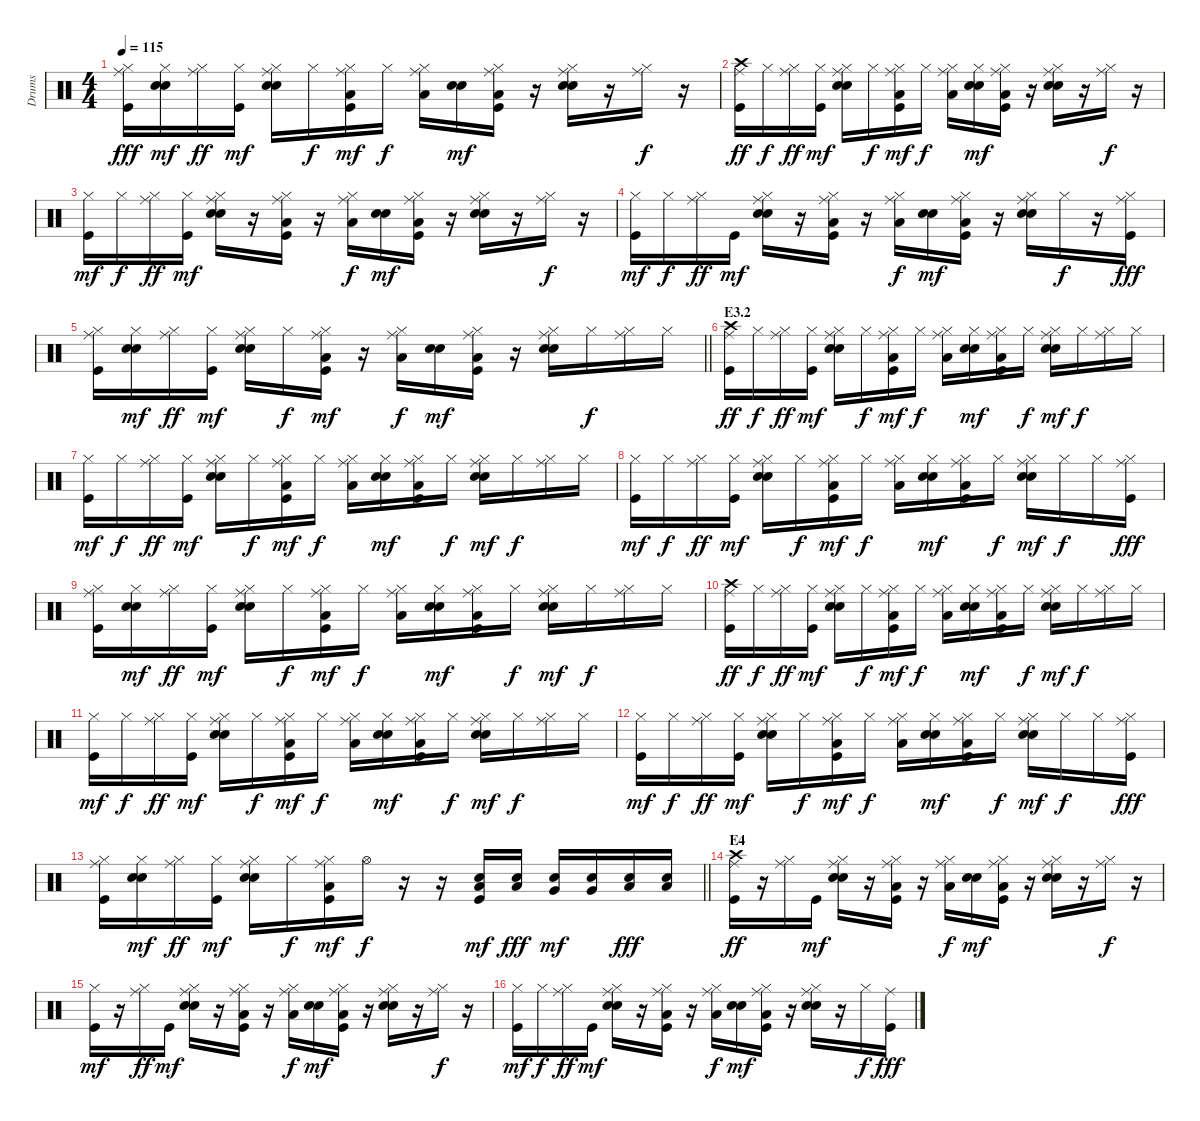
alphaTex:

\track ("Drums" "Drums") {instrument percussion}
\staff {score}
\articulation defaults
\ts (4 4)
\tempo 115
\clef neutral
\ks c
("Hi-Hat (closed)" "Ride (middle)" "Kick (hit)").16{dy fff} ("Hi-Hat (closed)" "Electric Snare (hit)" "Snare (hit) 2").16{dy mf} ("Hi-Hat (closed)" "Ride (middle)").16{dy ff} ("Hi-Hat (closed)" "Kick (hit)").16{dy mf} ("Hi-Hat (closed)" "Ride (middle)" "Electric Snare (hit)" "Snare (hit) 2").16 "Hi-Hat (closed)".16{dy f} ("Hi-Hat (closed)" "Ride (middle)" "Low Tom (hit)" "Kick (hit)").16{dy mf} "Hi-Hat (closed)".16{dy f} ("Hi-Hat (closed)" "Ride (middle)" "Low Tom (hit)").16 ("Electric Snare (hit)" "Snare (hit) 2").16{dy mf} ("Hi-Hat (closed)" "Ride (middle)" "Low Tom (hit)" "Kick (hit)").16 r.16 ("Hi-Hat (closed)" "Ride (middle)" "Electric Snare (hit)" "Snare (hit) 2").16 r.16 ("Hi-Hat (closed)" "Ride (middle)").16{dy f} r.16 |
("Crash high (hit)" "Ride (middle)" "Kick (hit)").16{dy ff} "Hi-Hat (closed)".16{dy f} ("Hi-Hat (closed)" "Ride (middle)").16{dy ff} ("Hi-Hat (closed)" "Kick (hit)").16{dy mf} ("Hi-Hat (closed)" "Ride (middle)" "Electric Snare (hit)" "Snare (hit) 2").16 "Hi-Hat (closed)".16{dy f} ("Hi-Hat (closed)" "Ride (middle)" "Low Tom (hit)" "Kick (hit)").16{dy mf} "Hi-Hat (closed)".16{dy f} ("Hi-Hat (closed)" "Ride (middle)" "Low Tom (hit)").16 ("Hi-Hat (closed)" "Electric Snare (hit)" "Snare (hit) 2").16{dy mf} ("Hi-Hat (closed)" "Ride (middle)" "Low Tom (hit)" "Kick (hit)").16 r.16 ("Hi-Hat (closed)" "Ride (middle)" "Electric Snare (hit)" "Snare (hit) 2").16 r.16 ("Hi-Hat (closed)" "Ride (middle)").16{dy f} r.16 |
("Hi-Hat (closed)" "Kick (hit)").16{dy mf} "Hi-Hat (closed)".16{dy f} ("Hi-Hat (closed)" "Ride (middle)").16{dy ff} ("Hi-Hat (closed)" "Kick (hit)").16{dy mf} ("Hi-Hat (closed)" "Ride (middle)" "Electric Snare (hit)" "Snare (hit) 2").16 r.16 ("Hi-Hat (closed)" "Ride (middle)" "Low Tom (hit)" "Kick (hit)").16 r.16 ("Hi-Hat (closed)" "Ride (middle)" "Low Tom (hit)").16{dy f} ("Electric Snare (hit)" "Snare (hit) 2").16{dy mf} ("Hi-Hat (closed)" "Ride (middle)" "Low Tom (hit)" "Kick (hit)").16 r.16 ("Hi-Hat (closed)" "Ride (middle)" "Electric Snare (hit)" "Snare (hit) 2").16 r.16 ("Hi-Hat (closed)" "Ride (middle)").16{dy f} r.16 |
("Hi-Hat (closed)" "Kick (hit)").16{dy mf} "Hi-Hat (closed)".16{dy f} ("Hi-Hat (closed)" "Ride (middle)").16{dy ff} "Kick (hit)".16{dy mf} ("Hi-Hat (closed)" "Ride (middle)" "Electric Snare (hit)" "Snare (hit) 2").16 r.16 ("Hi-Hat (closed)" "Ride (middle)" "Low Tom (hit)" "Kick (hit)").16 r.16 ("Hi-Hat (closed)" "Ride (middle)" "Low Tom (hit)").16{dy f} ("Electric Snare (hit)" "Snare (hit) 2").16{dy mf} ("Hi-Hat (closed)" "Ride (middle)" "Low Tom (hit)" "Kick (hit)").16 r.16 ("Hi-Hat (closed)" "Ride (middle)" "Electric Snare (hit)" "Snare (hit) 2").16 "Hi-Hat (closed)".16{dy f} r.16 ("Hi-Hat (closed)" "Ride (middle)" "Kick (hit)").16{dy fff} |
\barLineRight lightlight
("Hi-Hat (closed)" "Ride (middle)" "Kick (hit)").16 ("Hi-Hat (closed)" "Electric Snare (hit)" "Snare (hit) 2").16{dy mf} ("Hi-Hat (closed)" "Ride (middle)").16{dy ff} ("Hi-Hat (closed)" "Kick (hit)").16{dy mf} ("Hi-Hat (closed)" "Ride (middle)" "Electric Snare (hit)" "Snare (hit) 2").16 "Hi-Hat (closed)".16{dy f} ("Hi-Hat (closed)" "Ride (middle)" "Low Tom (hit)" "Kick (hit)").16{dy mf} r.16 ("Hi-Hat (closed)" "Ride (middle)" "Low Tom (hit)").16{dy f} ("Electric Snare (hit)" "Snare (hit) 2").16{dy mf} ("Hi-Hat (closed)" "Ride (middle)" "Low Tom (hit)" "Kick (hit)").16 r.16 ("Hi-Hat (closed)" "Ride (middle)" "Electric Snare (hit)" "Snare (hit) 2").16 "Hi-Hat (closed)".16{dy f} ("Hi-Hat (closed)" "Ride (middle)").16 "Hi-Hat (closed)".16 |
\section ("" "E3.2")
("Crash high (hit)" "Ride (middle)" "Kick (hit)").16{dy ff} "Hi-Hat (closed)".16{dy f} ("Hi-Hat (closed)" "Ride (middle)").16{dy ff} ("Hi-Hat (closed)" "Kick (hit)").16{dy mf} ("Hi-Hat (closed)" "Ride (middle)" "Electric Snare (hit)" "Snare (hit) 2").16 "Hi-Hat (closed)".16{dy f} ("Hi-Hat (closed)" "Ride (middle)" "Low Tom (hit)" "Kick (hit)").16{dy mf} "Hi-Hat (closed)".16{dy f} ("Hi-Hat (closed)" "Ride (middle)" "Low Tom (hit)").16 ("Hi-Hat (closed)" "Electric Snare (hit)" "Snare (hit) 2").16{dy mf} ("Hi-Hat (closed)" "Ride (middle)" "Low Tom (hit)" "Kick (hit)").16 "Hi-Hat (closed)".16{dy f} ("Hi-Hat (closed)" "Ride (middle)" "Electric Snare (hit)" "Snare (hit) 2").16{dy mf} "Hi-Hat (closed)".16{dy f} ("Hi-Hat (closed)" "Ride (middle)").16 "Hi-Hat (closed)".16 |
("Hi-Hat (closed)" "Kick (hit)").16{dy mf} "Hi-Hat (closed)".16{dy f} ("Hi-Hat (closed)" "Ride (middle)").16{dy ff} ("Hi-Hat (closed)" "Kick (hit)").16{dy mf} ("Hi-Hat (closed)" "Ride (middle)" "Electric Snare (hit)" "Snare (hit) 2").16 "Hi-Hat (closed)".16{dy f} ("Hi-Hat (closed)" "Ride (middle)" "Low Tom (hit)" "Kick (hit)").16{dy mf} "Hi-Hat (closed)".16{dy f} ("Hi-Hat (closed)" "Ride (middle)" "Low Tom (hit)").16 ("Hi-Hat (closed)" "Electric Snare (hit)" "Snare (hit) 2").16{dy mf} ("Hi-Hat (closed)" "Ride (middle)" "Low Tom (hit)" "Kick (hit)").16 "Hi-Hat (closed)".16{dy f} ("Hi-Hat (closed)" "Ride (middle)" "Electric Snare (hit)" "Snare (hit) 2").16{dy mf} "Hi-Hat (closed)".16{dy f} ("Hi-Hat (closed)" "Ride (middle)").16 "Hi-Hat (closed)".16 |
("Hi-Hat (closed)" "Kick (hit)").16{dy mf} "Hi-Hat (closed)".16{dy f} ("Hi-Hat (closed)" "Ride (middle)").16{dy ff} ("Hi-Hat (closed)" "Kick (hit)").16{dy mf} ("Hi-Hat (closed)" "Ride (middle)" "Electric Snare (hit)" "Snare (hit) 2").16 "Hi-Hat (closed)".16{dy f} ("Hi-Hat (closed)" "Ride (middle)" "Low Tom (hit)" "Kick (hit)").16{dy mf} "Hi-Hat (closed)".16{dy f} ("Hi-Hat (closed)" "Ride (middle)" "Low Tom (hit)").16 ("Hi-Hat (closed)" "Electric Snare (hit)" "Snare (hit) 2").16{dy mf} ("Hi-Hat (closed)" "Ride (middle)" "Low Tom (hit)" "Kick (hit)").16 "Hi-Hat (closed)".16{dy f} ("Hi-Hat (closed)" "Ride (middle)" "Electric Snare (hit)" "Snare (hit) 2").16{dy mf} "Hi-Hat (closed)".16{dy f} "Hi-Hat (closed)".16 ("Hi-Hat (closed)" "Ride (middle)" "Kick (hit)").16{dy fff} |
("Hi-Hat (closed)" "Ride (middle)" "Kick (hit)").16 ("Hi-Hat (closed)" "Electric Snare (hit)" "Snare (hit) 2").16{dy mf} ("Hi-Hat (closed)" "Ride (middle)").16{dy ff} ("Hi-Hat (closed)" "Kick (hit)").16{dy mf} ("Hi-Hat (closed)" "Ride (middle)" "Electric Snare (hit)" "Snare (hit) 2").16 "Hi-Hat (closed)".16{dy f} ("Hi-Hat (closed)" "Ride (middle)" "Low Tom (hit)" "Kick (hit)").16{dy mf} "Hi-Hat (closed)".16{dy f} ("Hi-Hat (closed)" "Ride (middle)" "Low Tom (hit)").16 ("Hi-Hat (closed)" "Electric Snare (hit)" "Snare (hit) 2").16{dy mf} ("Hi-Hat (closed)" "Ride (middle)" "Low Tom (hit)" "Kick (hit)").16 "Hi-Hat (closed)".16{dy f} ("Hi-Hat (closed)" "Ride (middle)" "Electric Snare (hit)" "Snare (hit) 2").16{dy mf} "Hi-Hat (closed)".16{dy f} ("Hi-Hat (closed)" "Ride (middle)").16 "Hi-Hat (closed)".16 |
("Crash high (hit)" "Ride (middle)" "Kick (hit)").16{dy ff} "Hi-Hat (closed)".16{dy f} ("Hi-Hat (closed)" "Ride (middle)").16{dy ff} ("Hi-Hat (closed)" "Kick (hit)").16{dy mf} ("Hi-Hat (closed)" "Ride (middle)" "Electric Snare (hit)" "Snare (hit) 2").16 "Hi-Hat (closed)".16{dy f} ("Hi-Hat (closed)" "Ride (middle)" "Low Tom (hit)" "Kick (hit)").16{dy mf} "Hi-Hat (closed)".16{dy f} ("Hi-Hat (closed)" "Ride (middle)" "Low Tom (hit)").16 ("Hi-Hat (closed)" "Electric Snare (hit)" "Snare (hit) 2").16{dy mf} ("Hi-Hat (closed)" "Ride (middle)" "Low Tom (hit)" "Kick (hit)").16 "Hi-Hat (closed)".16{dy f} ("Hi-Hat (closed)" "Ride (middle)" "Electric Snare (hit)" "Snare (hit) 2").16{dy mf} "Hi-Hat (closed)".16{dy f} ("Hi-Hat (closed)" "Ride (middle)").16 "Hi-Hat (closed)".16 |
("Hi-Hat (closed)" "Kick (hit)").16{dy mf} "Hi-Hat (closed)".16{dy f} ("Hi-Hat (closed)" "Ride (middle)").16{dy ff} ("Hi-Hat (closed)" "Kick (hit)").16{dy mf} ("Hi-Hat (closed)" "Ride (middle)" "Electric Snare (hit)" "Snare (hit) 2").16 "Hi-Hat (closed)".16{dy f} ("Hi-Hat (closed)" "Ride (middle)" "Low Tom (hit)" "Kick (hit)").16{dy mf} "Hi-Hat (closed)".16{dy f} ("Hi-Hat (closed)" "Ride (middle)" "Low Tom (hit)").16 ("Hi-Hat (closed)" "Electric Snare (hit)" "Snare (hit) 2").16{dy mf} ("Hi-Hat (closed)" "Ride (middle)" "Low Tom (hit)" "Kick (hit)").16 "Hi-Hat (closed)".16{dy f} ("Hi-Hat (closed)" "Ride (middle)" "Electric Snare (hit)" "Snare (hit) 2").16{dy mf} "Hi-Hat (closed)".16{dy f} ("Hi-Hat (closed)" "Ride (middle)").16 "Hi-Hat (closed)".16 |
("Hi-Hat (closed)" "Kick (hit)").16{dy mf} "Hi-Hat (closed)".16{dy f} ("Hi-Hat (closed)" "Ride (middle)").16{dy ff} ("Hi-Hat (closed)" "Kick (hit)").16{dy mf} ("Hi-Hat (closed)" "Ride (middle)" "Electric Snare (hit)" "Snare (hit) 2").16 "Hi-Hat (closed)".16{dy f} ("Hi-Hat (closed)" "Ride (middle)" "Low Tom (hit)" "Kick (hit)").16{dy mf} "Hi-Hat (closed)".16{dy f} ("Hi-Hat (closed)" "Ride (middle)" "Low Tom (hit)").16 ("Hi-Hat (closed)" "Electric Snare (hit)" "Snare (hit) 2").16{dy mf} ("Hi-Hat (closed)" "Ride (middle)" "Low Tom (hit)" "Kick (hit)").16 "Hi-Hat (closed)".16{dy f} ("Hi-Hat (closed)" "Ride (middle)" "Electric Snare (hit)" "Snare (hit) 2").16{dy mf} "Hi-Hat (closed)".16{dy f} "Hi-Hat (closed)".16 ("Hi-Hat (closed)" "Ride (middle)" "Kick (hit)").16{dy fff} |
\barLineRight lightlight
("Hi-Hat (closed)" "Ride (middle)" "Kick (hit)").16 ("Hi-Hat (closed)" "Electric Snare (hit)" "Snare (hit) 2").16{dy mf} ("Hi-Hat (closed)" "Ride (middle)").16{dy ff} ("Hi-Hat (closed)" "Kick (hit)").16{dy mf} ("Hi-Hat (closed)" "Ride (middle)" "Electric Snare (hit)" "Snare (hit) 2").16 "Hi-Hat (closed)".16{dy f} ("Hi-Hat (closed)" "Ride (middle)" "Low Tom (hit)" "Kick (hit)").16{dy mf} "Hi-Hat (open)".16{dy f} r.16 r.16 ("Electric Snare (hit)" "Low Tom (hit)" "Kick (hit)").16{dy mf} ("Electric Snare (hit)" "Low Tom (hit)").16{dy fff} ("Electric Snare (hit)" "Very Low Tom (hit)").16{dy mf} ("Electric Snare (hit)" "Very Low Tom (hit)").16 ("Electric Snare (hit)" "Low Tom (hit)").16{dy fff} ("Electric Snare (hit)" "Low Tom (hit)").16 |
\section ("" "E4")
("Crash high (hit)" "Ride (middle)" "Kick (hit)").16{dy ff} r.16 ("Hi-Hat (closed)" "Ride (middle)").16 "Kick (hit)".16{dy mf} ("Hi-Hat (closed)" "Ride (middle)" "Electric Snare (hit)" "Snare (hit) 2").16 r.16 ("Hi-Hat (closed)" "Ride (middle)" "Low Tom (hit)" "Kick (hit)").16 r.16 ("Hi-Hat (closed)" "Ride (middle)" "Low Tom (hit)").16{dy f} ("Electric Snare (hit)" "Snare (hit) 2").16{dy mf} ("Hi-Hat (closed)" "Ride (middle)" "Low Tom (hit)" "Kick (hit)").16 r.16 ("Hi-Hat (closed)" "Ride (middle)" "Electric Snare (hit)" "Snare (hit) 2").16 r.16 ("Hi-Hat (closed)" "Ride (middle)").16{dy f} r.16 |
("Hi-Hat (closed)" "Kick (hit)").16{dy mf} r.16 ("Hi-Hat (closed)" "Ride (middle)").16{dy ff} "Kick (hit)".16{dy mf} ("Hi-Hat (closed)" "Ride (middle)" "Electric Snare (hit)" "Snare (hit) 2").16 r.16 ("Hi-Hat (closed)" "Ride (middle)" "Low Tom (hit)" "Kick (hit)").16 r.16 ("Hi-Hat (closed)" "Ride (middle)" "Low Tom (hit)").16{dy f} ("Electric Snare (hit)" "Snare (hit) 2").16{dy mf} ("Hi-Hat (closed)" "Ride (middle)" "Low Tom (hit)" "Kick (hit)").16 r.16 ("Hi-Hat (closed)" "Ride (middle)" "Electric Snare (hit)" "Snare (hit) 2").16 r.16 ("Hi-Hat (closed)" "Ride (middle)").16{dy f} r.16 |
("Hi-Hat (closed)" "Kick (hit)").16{dy mf} "Hi-Hat (closed)".16{dy f} ("Hi-Hat (closed)" "Ride (middle)").16{dy ff} "Kick (hit)".16{dy mf} ("Hi-Hat (closed)" "Ride (middle)" "Electric Snare (hit)" "Snare (hit) 2").16 r.16 ("Hi-Hat (closed)" "Ride (middle)" "Low Tom (hit)" "Kick (hit)").16 r.16 ("Hi-Hat (closed)" "Ride (middle)" "Low Tom (hit)").16{dy f} ("Electric Snare (hit)" "Snare (hit) 2").16{dy mf} ("Hi-Hat (closed)" "Ride (middle)" "Low Tom (hit)" "Kick (hit)").16 r.16 ("Hi-Hat (closed)" "Ride (middle)" "Electric Snare (hit)" "Snare (hit) 2").16 r.16 "Hi-Hat (closed)".16{dy f} ("Ride (middle)" "Kick (hit)").16{dy fff}
